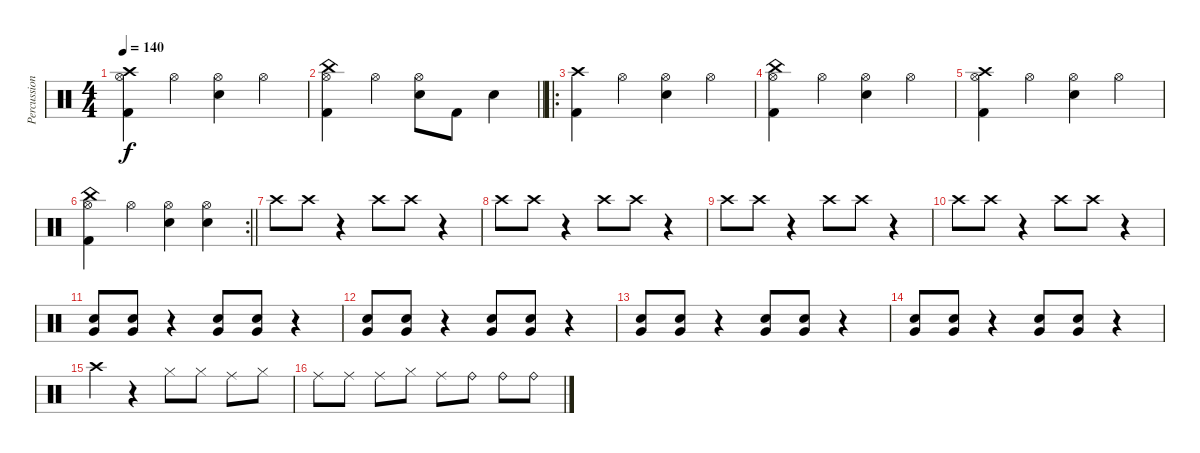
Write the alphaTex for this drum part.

\track ("Percussion" "Percussion") {instrument percussion}
\staff {score}
\articulation defaults
\ts (4 4)
\tempo 140
\clef neutral
\ks c
("Crash high (hit)" "Hi-Hat (open)" "Kick (hit) 2").4{dy f} "Hi-Hat (open)".4 ("Hi-Hat (open)" "Electric Snare (hit)").4 "Hi-Hat (open)".4 |
\barLineRight lightlight
("China (hit)" "Hi-Hat (open)" "Kick (hit) 2").4 "Hi-Hat (open)".4 ("Hi-Hat (open)" "Electric Snare (hit)").8 "Kick (hit) 2".8 "Electric Snare (hit)".4 |
\ro
("Crash high (hit)" "Kick (hit) 2").4 "Hi-Hat (open)".4 ("Hi-Hat (open)" "Electric Snare (hit)").4 "Hi-Hat (open)".4 |
("China (hit)" "Hi-Hat (open)" "Kick (hit) 2").4 "Hi-Hat (open)".4 ("Hi-Hat (open)" "Electric Snare (hit)").4 "Hi-Hat (open)".4 |
("Crash high (hit)" "Hi-Hat (open)" "Kick (hit) 2").4 "Hi-Hat (open)".4 ("Hi-Hat (open)" "Electric Snare (hit)").4 "Hi-Hat (open)".4 |
\rc 2
\barLineRight lightlight
("China (hit)" "Hi-Hat (open)" "Kick (hit) 2").4 "Hi-Hat (open)".4 ("Hi-Hat (open)" "Electric Snare (hit)").4 ("Hi-Hat (open)" "Electric Snare (hit)").4 |
"Crash high (hit)".8 "Crash high (hit)".8 r.4 "Crash high (hit)".8 "Crash high (hit)".8 r.4 |
"Crash high (hit)".8 "Crash high (hit)".8 r.4 "Crash high (hit)".8 "Crash high (hit)".8 r.4 |
"Crash high (hit)".8 "Crash high (hit)".8 r.4 "Crash high (hit)".8 "Crash high (hit)".8 r.4 |
"Crash high (hit)".8 "Crash high (hit)".8 r.4 "Crash high (hit)".8 "Crash high (hit)".8 r.4 |
("Electric Snare (hit)" "Very Low Tom (hit)").8 ("Electric Snare (hit)" "Very Low Tom (hit)").8 r.4 ("Electric Snare (hit)" "Very Low Tom (hit)").8 ("Electric Snare (hit)" "Very Low Tom (hit)").8 r.4 |
("Electric Snare (hit)" "Very Low Tom (hit)").8 ("Electric Snare (hit)" "Very Low Tom (hit)").8 r.4 ("Electric Snare (hit)" "Very Low Tom (hit)").8 ("Electric Snare (hit)" "Very Low Tom (hit)").8 r.4 |
("Electric Snare (hit)" "Very Low Tom (hit)").8 ("Electric Snare (hit)" "Very Low Tom (hit)").8 r.4 ("Electric Snare (hit)" "Very Low Tom (hit)").8 ("Electric Snare (hit)" "Very Low Tom (hit)").8 r.4 |
("Electric Snare (hit)" "Very Low Tom (hit)").8 ("Electric Snare (hit)" "Very Low Tom (hit)").8 r.4 ("Electric Snare (hit)" "Very Low Tom (hit)").8 ("Electric Snare (hit)" "Very Low Tom (hit)").8 r.4 |
"Crash high (hit)".4 r.4 "Hi-Hat (closed)".8 "Hi-Hat (closed)".8 "Ride (middle)".8 "Hi-Hat (closed)".8 |
"Ride (middle)".8 "Ride (middle)".8 "Ride (middle)".8 "Hi-Hat (closed)".8 "Ride (middle)".8 "Ride (bell)".8 "Ride (bell)".8 "Ride (bell)".8
